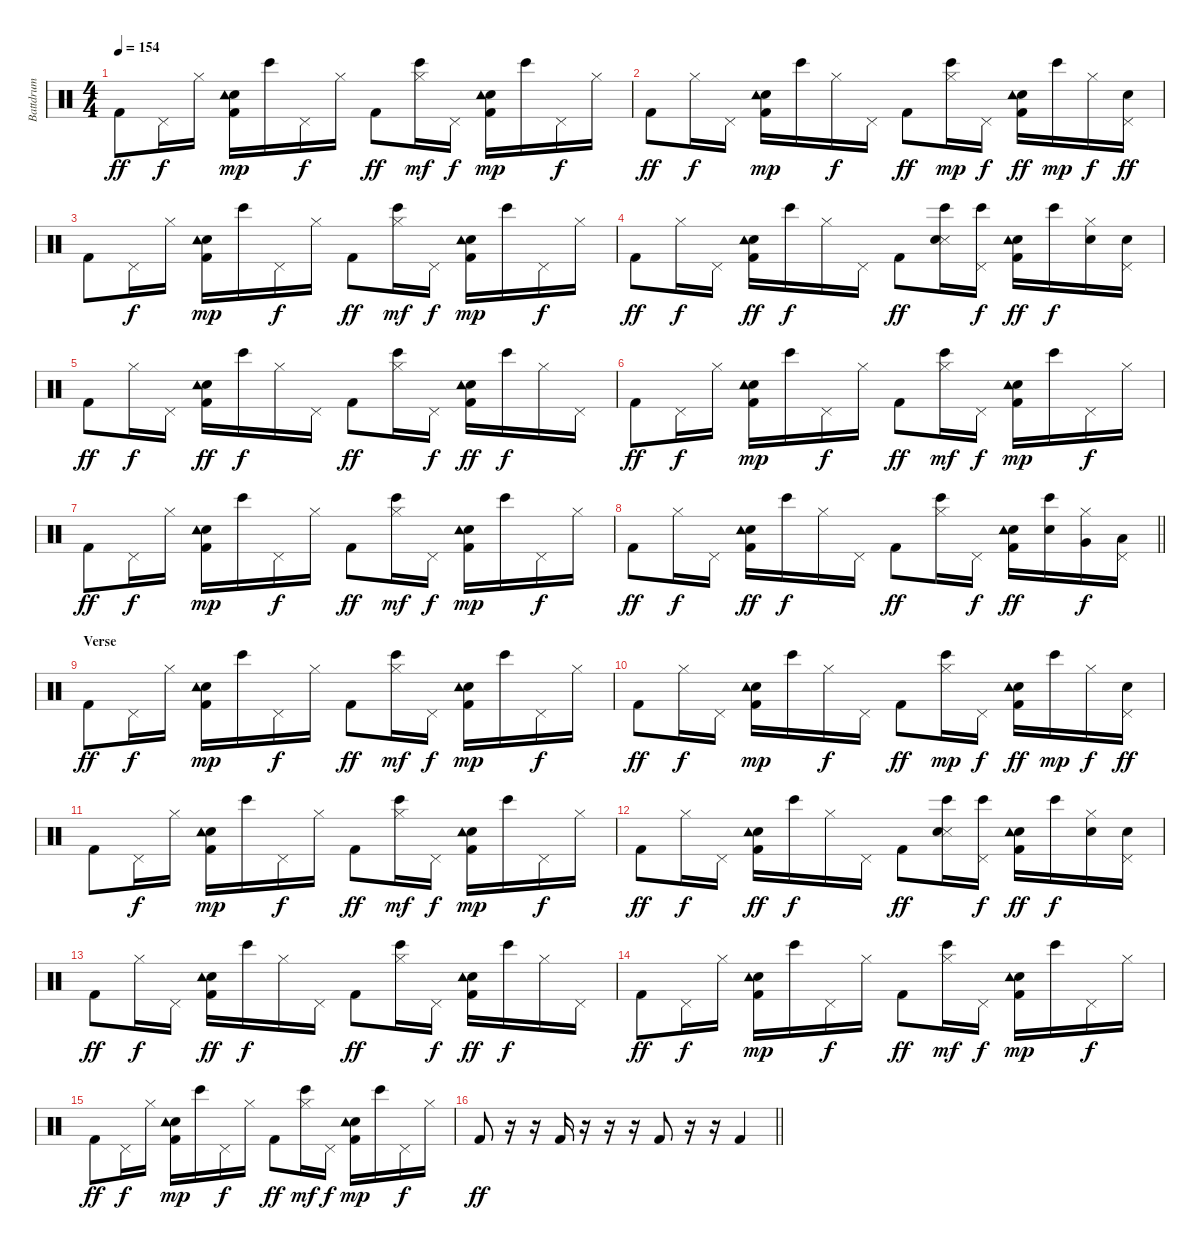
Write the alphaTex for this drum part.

\track ("Battdrum" "Battdrum") {instrument percussion}
\staff {score}
\articulation defaults
\ts (4 4)
\tempo 154
\clef neutral
\ks c "Kick (hit) 2".8{dy ff} "Pedal Hi-Hat (hit)".16{dy f} "Hi-Hat (closed)".16
("Kick (hit) 2" "Electric Snare (hit)" "Tambourine (hit)").16{dy mp} "Bongo High (hit)".16 "Pedal Hi-Hat (hit)".16{dy f} "Hi-Hat (closed)".16 "Kick (hit) 2".8{dy ff} ("Bongo High (hit)" "Hi-Hat (closed)").16{dy mf} "Pedal Hi-Hat (hit)".16{dy f} ("Kick (hit) 2" "Electric Snare (hit)" "Tambourine (hit)").16{dy mp} "Bongo High (hit)".16 "Pedal Hi-Hat (hit)".16{dy f} "Hi-Hat (closed)".16 |
"Kick (hit) 2".8{dy ff} "Hi-Hat (closed)".16{dy f} "Pedal Hi-Hat (hit)".16 ("Kick (hit) 2" "Electric Snare (hit)" "Tambourine (hit)").16{dy mp} "Bongo High (hit)".16 "Hi-Hat (closed)".16{dy f} "Pedal Hi-Hat (hit)".16 "Kick (hit) 2".8{dy ff} ("Bongo High (hit)" "Hi-Hat (closed)").16{dy mp} "Pedal Hi-Hat (hit)".16{dy f} ("Kick (hit) 2" "Electric Snare (hit)" "Tambourine (hit)").16{dy ff} "Bongo High (hit)".16{dy mp} "Hi-Hat (closed)".16{dy f} ("Electric Snare (hit)" "Pedal Hi-Hat (hit)").16{dy ff} |
"Kick (hit) 2".8 "Pedal Hi-Hat (hit)".16{dy f} "Hi-Hat (closed)".16 ("Kick (hit) 2" "Electric Snare (hit)" "Tambourine (hit)").16{dy mp} "Bongo High (hit)".16 "Pedal Hi-Hat (hit)".16{dy f} "Hi-Hat (closed)".16 "Kick (hit) 2".8{dy ff} ("Bongo High (hit)" "Hi-Hat (closed)").16{dy mf} "Pedal Hi-Hat (hit)".16{dy f} ("Kick (hit) 2" "Electric Snare (hit)" "Tambourine (hit)").16{dy mp} "Bongo High (hit)".16 "Pedal Hi-Hat (hit)".16{dy f} "Hi-Hat (closed)".16 |
"Kick (hit) 2".8{dy ff} "Hi-Hat (closed)".16{dy f} "Pedal Hi-Hat (hit)".16 ("Kick (hit) 2" "Electric Snare (hit)" "Tambourine (hit)").16{dy ff} "Bongo High (hit)".16{dy f} "Hi-Hat (closed)".16 "Pedal Hi-Hat (hit)".16 "Kick (hit) 2".8{dy ff} ("Snare (side stick) 3" "Electric Snare (hit)" "Bongo High (hit)").16 ("Bongo High (hit)" "Pedal Hi-Hat (hit)").16{dy f} ("Kick (hit) 2" "Electric Snare (hit)" "Tambourine (hit)").16{dy ff} "Bongo High (hit)".16{dy f} ("Electric Snare (hit)" "Hi-Hat (closed)").16 ("Electric Snare (hit)" "Pedal Hi-Hat (hit)").16 |
"Kick (hit) 2".8{dy ff} "Hi-Hat (closed)".16{dy f} "Pedal Hi-Hat (hit)".16 ("Kick (hit) 2" "Electric Snare (hit)" "Tambourine (hit)").16{dy ff} "Bongo High (hit)".16{dy f} "Hi-Hat (closed)".16 "Pedal Hi-Hat (hit)".16 "Kick (hit) 2".8{dy ff} ("Bongo High (hit)" "Hi-Hat (closed)").16 "Pedal Hi-Hat (hit)".16{dy f} ("Kick (hit) 2" "Electric Snare (hit)" "Tambourine (hit)").16{dy ff} "Bongo High (hit)".16{dy f} "Hi-Hat (closed)".16 "Pedal Hi-Hat (hit)".16 |
"Kick (hit) 2".8{dy ff} "Pedal Hi-Hat (hit)".16{dy f} "Hi-Hat (closed)".16 ("Kick (hit) 2" "Electric Snare (hit)" "Tambourine (hit)").16{dy mp} "Bongo High (hit)".16 "Pedal Hi-Hat (hit)".16{dy f} "Hi-Hat (closed)".16 "Kick (hit) 2".8{dy ff} ("Bongo High (hit)" "Hi-Hat (closed)").16{dy mf} "Pedal Hi-Hat (hit)".16{dy f} ("Kick (hit) 2" "Electric Snare (hit)" "Tambourine (hit)").16{dy mp} "Bongo High (hit)".16 "Pedal Hi-Hat (hit)".16{dy f} "Hi-Hat (closed)".16 |
"Kick (hit) 2".8{dy ff} "Pedal Hi-Hat (hit)".16{dy f} "Hi-Hat (closed)".16 ("Kick (hit) 2" "Electric Snare (hit)" "Tambourine (hit)").16{dy mp} "Bongo High (hit)".16 "Pedal Hi-Hat (hit)".16{dy f} "Hi-Hat (closed)".16 "Kick (hit) 2".8{dy ff} ("Bongo High (hit)" "Hi-Hat (closed)").16{dy mf} "Pedal Hi-Hat (hit)".16{dy f} ("Kick (hit) 2" "Electric Snare (hit)" "Tambourine (hit)").16{dy mp} "Bongo High (hit)".16 "Pedal Hi-Hat (hit)".16{dy f} "Hi-Hat (closed)".16 |
\barLineRight lightlight "Kick (hit) 2".8{dy ff} "Hi-Hat (closed)".16{dy f} "Pedal Hi-Hat (hit)".16
("Kick (hit) 2" "Electric Snare (hit)" "Tambourine (hit)").16{dy ff} "Bongo High (hit)".16{dy f} "Hi-Hat (closed)".16 "Pedal Hi-Hat (hit)".16 "Kick (hit) 2".8{dy ff} ("Bongo High (hit)" "Hi-Hat (closed)").16 "Pedal Hi-Hat (hit)".16{dy f} ("Kick (hit) 2" "Electric Snare (hit)" "Tambourine (hit)").16{dy ff} ("Electric Snare (hit)" "Bongo High (hit)").16 ("Hi-Hat (closed)" "Very Low Tom (hit)").16{dy f} ("Pedal Hi-Hat (hit)" "Low Tom (hit)").16 |
\section ("" "Verse")
"Kick (hit) 2".8{dy ff} "Pedal Hi-Hat (hit)".16{dy f} "Hi-Hat (closed)".16 ("Kick (hit) 2" "Electric Snare (hit)" "Tambourine (hit)").16{dy mp} "Bongo High (hit)".16 "Pedal Hi-Hat (hit)".16{dy f} "Hi-Hat (closed)".16 "Kick (hit) 2".8{dy ff} ("Bongo High (hit)" "Hi-Hat (closed)").16{dy mf} "Pedal Hi-Hat (hit)".16{dy f} ("Kick (hit) 2" "Electric Snare (hit)" "Tambourine (hit)").16{dy mp} "Bongo High (hit)".16 "Pedal Hi-Hat (hit)".16{dy f} "Hi-Hat (closed)".16 |
"Kick (hit) 2".8{dy ff} "Hi-Hat (closed)".16{dy f} "Pedal Hi-Hat (hit)".16 ("Kick (hit) 2" "Electric Snare (hit)" "Tambourine (hit)").16{dy mp} "Bongo High (hit)".16 "Hi-Hat (closed)".16{dy f} "Pedal Hi-Hat (hit)".16 "Kick (hit) 2".8{dy ff} ("Bongo High (hit)" "Hi-Hat (closed)").16{dy mp} "Pedal Hi-Hat (hit)".16{dy f} ("Kick (hit) 2" "Electric Snare (hit)" "Tambourine (hit)").16{dy ff} "Bongo High (hit)".16{dy mp} "Hi-Hat (closed)".16{dy f} ("Electric Snare (hit)" "Pedal Hi-Hat (hit)").16{dy ff} |
"Kick (hit) 2".8 "Pedal Hi-Hat (hit)".16{dy f} "Hi-Hat (closed)".16 ("Kick (hit) 2" "Electric Snare (hit)" "Tambourine (hit)").16{dy mp} "Bongo High (hit)".16 "Pedal Hi-Hat (hit)".16{dy f} "Hi-Hat (closed)".16 "Kick (hit) 2".8{dy ff} ("Bongo High (hit)" "Hi-Hat (closed)").16{dy mf} "Pedal Hi-Hat (hit)".16{dy f} ("Kick (hit) 2" "Electric Snare (hit)" "Tambourine (hit)").16{dy mp} "Bongo High (hit)".16 "Pedal Hi-Hat (hit)".16{dy f} "Hi-Hat (closed)".16 |
"Kick (hit) 2".8{dy ff} "Hi-Hat (closed)".16{dy f} "Pedal Hi-Hat (hit)".16 ("Kick (hit) 2" "Electric Snare (hit)" "Tambourine (hit)").16{dy ff} "Bongo High (hit)".16{dy f} "Hi-Hat (closed)".16 "Pedal Hi-Hat (hit)".16 "Kick (hit) 2".8{dy ff} ("Snare (side stick) 3" "Electric Snare (hit)" "Bongo High (hit)").16 ("Bongo High (hit)" "Pedal Hi-Hat (hit)").16{dy f} ("Kick (hit) 2" "Electric Snare (hit)" "Tambourine (hit)").16{dy ff} "Bongo High (hit)".16{dy f} ("Electric Snare (hit)" "Hi-Hat (closed)").16 ("Electric Snare (hit)" "Pedal Hi-Hat (hit)").16 |
"Kick (hit) 2".8{dy ff} "Hi-Hat (closed)".16{dy f} "Pedal Hi-Hat (hit)".16 ("Kick (hit) 2" "Electric Snare (hit)" "Tambourine (hit)").16{dy ff} "Bongo High (hit)".16{dy f} "Hi-Hat (closed)".16 "Pedal Hi-Hat (hit)".16 "Kick (hit) 2".8{dy ff} ("Bongo High (hit)" "Hi-Hat (closed)").16 "Pedal Hi-Hat (hit)".16{dy f} ("Kick (hit) 2" "Electric Snare (hit)" "Tambourine (hit)").16{dy ff} "Bongo High (hit)".16{dy f} "Hi-Hat (closed)".16 "Pedal Hi-Hat (hit)".16 |
"Kick (hit) 2".8{dy ff} "Pedal Hi-Hat (hit)".16{dy f} "Hi-Hat (closed)".16 ("Kick (hit) 2" "Electric Snare (hit)" "Tambourine (hit)").16{dy mp} "Bongo High (hit)".16 "Pedal Hi-Hat (hit)".16{dy f} "Hi-Hat (closed)".16 "Kick (hit) 2".8{dy ff} ("Bongo High (hit)" "Hi-Hat (closed)").16{dy mf} "Pedal Hi-Hat (hit)".16{dy f} ("Kick (hit) 2" "Electric Snare (hit)" "Tambourine (hit)").16{dy mp} "Bongo High (hit)".16 "Pedal Hi-Hat (hit)".16{dy f} "Hi-Hat (closed)".16 |
"Kick (hit) 2".8{dy ff} "Pedal Hi-Hat (hit)".16{dy f} "Hi-Hat (closed)".16 ("Kick (hit) 2" "Electric Snare (hit)" "Tambourine (hit)").16{dy mp} "Bongo High (hit)".16 "Pedal Hi-Hat (hit)".16{dy f} "Hi-Hat (closed)".16 "Kick (hit) 2".8{dy ff} ("Bongo High (hit)" "Hi-Hat (closed)").16{dy mf} "Pedal Hi-Hat (hit)".16{dy f} ("Kick (hit) 2" "Electric Snare (hit)" "Tambourine (hit)").16{dy mp} "Bongo High (hit)".16 "Pedal Hi-Hat (hit)".16{dy f} "Hi-Hat (closed)".16 |
\barLineRight lightlight "Kick (hit) 2".8{dy ff}
r.16 r.16 "Kick (hit) 2".16 r.16 r.16 r.16 "Kick (hit) 2".8 r.16 r.16 "Kick (hit) 2".4
